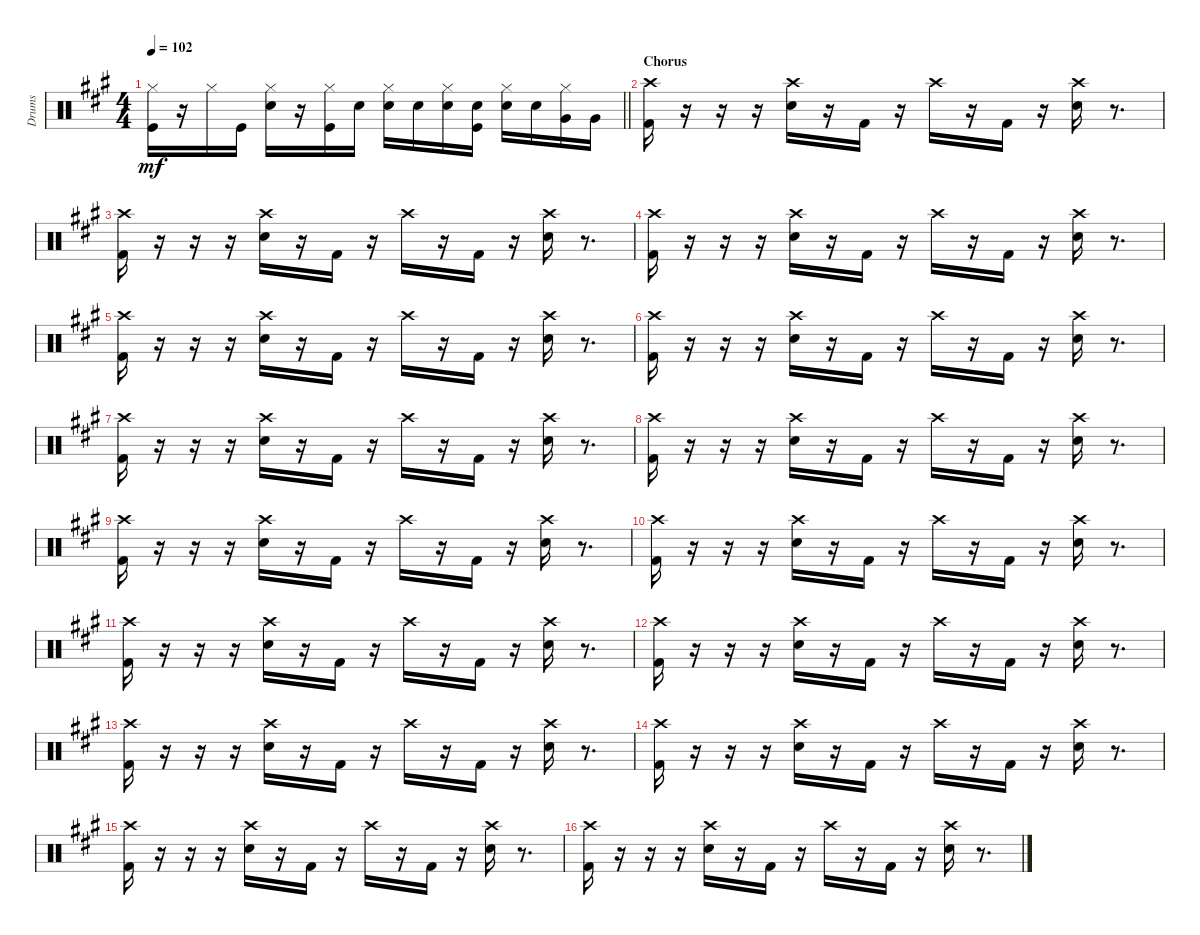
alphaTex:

\track ("Drums" "Drums") {instrument percussion}
\staff {score}
\articulation defaults
\ts (4 4)
\tempo 102
\clef neutral
\barLineRight lightlight
\ks f#minor
("Hi-Hat (closed)" "Kick (hit)").16{dy mf} r.16 "Hi-Hat (closed)".16 "Kick (hit)".16 ("Hi-Hat (closed)" "Snare (hit) 2").16 r.16 ("Hi-Hat (closed)" "Kick (hit)").16 "Snare (hit) 2".16 ("Hi-Hat (closed)" "Snare (hit) 2").16 "Snare (hit) 2".16 ("Hi-Hat (closed)" "Snare (hit) 2").16 ("Snare (hit) 2" "Kick (hit)").16 ("Hi-Hat (closed)" "Snare (hit) 2").16 "Snare (hit) 2".16 ("Hi-Hat (closed)" "Very Low Tom (hit)").16 "Very Low Tom (hit)".16 |
\section ("" "Chorus")
("Crash high (hit)" "Kick (hit) 2").16 r.16 r.16 r.16 ("Crash high (hit)" "Electric Snare (hit)").16 r.16 "Kick (hit) 2".16 r.16 "Crash high (hit)".16 r.16 "Kick (hit) 2".16 r.16 ("Crash high (hit)" "Electric Snare (hit)").16 r.8{d} |
("Crash high (hit)" "Kick (hit) 2").16 r.16 r.16 r.16 ("Crash high (hit)" "Electric Snare (hit)").16 r.16 "Kick (hit) 2".16 r.16 "Crash high (hit)".16 r.16 "Kick (hit) 2".16 r.16 ("Crash high (hit)" "Electric Snare (hit)").16 r.8{d} |
("Crash high (hit)" "Kick (hit) 2").16 r.16 r.16 r.16 ("Crash high (hit)" "Electric Snare (hit)").16 r.16 "Kick (hit) 2".16 r.16 "Crash high (hit)".16 r.16 "Kick (hit) 2".16 r.16 ("Crash high (hit)" "Electric Snare (hit)").16 r.8{d} |
("Crash high (hit)" "Kick (hit) 2").16 r.16 r.16 r.16 ("Crash high (hit)" "Electric Snare (hit)").16 r.16 "Kick (hit) 2".16 r.16 "Crash high (hit)".16 r.16 "Kick (hit) 2".16 r.16 ("Crash high (hit)" "Electric Snare (hit)").16 r.8{d} |
("Crash high (hit)" "Kick (hit) 2").16 r.16 r.16 r.16 ("Crash high (hit)" "Electric Snare (hit)").16 r.16 "Kick (hit) 2".16 r.16 "Crash high (hit)".16 r.16 "Kick (hit) 2".16 r.16 ("Crash high (hit)" "Electric Snare (hit)").16 r.8{d} |
("Crash high (hit)" "Kick (hit) 2").16 r.16 r.16 r.16 ("Crash high (hit)" "Electric Snare (hit)").16 r.16 "Kick (hit) 2".16 r.16 "Crash high (hit)".16 r.16 "Kick (hit) 2".16 r.16 ("Crash high (hit)" "Electric Snare (hit)").16 r.8{d} |
("Crash high (hit)" "Kick (hit) 2").16 r.16 r.16 r.16 ("Crash high (hit)" "Electric Snare (hit)").16 r.16 "Kick (hit) 2".16 r.16 "Crash high (hit)".16 r.16 "Kick (hit) 2".16 r.16 ("Crash high (hit)" "Electric Snare (hit)").16 r.8{d} |
("Crash high (hit)" "Kick (hit) 2").16 r.16 r.16 r.16 ("Crash high (hit)" "Electric Snare (hit)").16 r.16 "Kick (hit) 2".16 r.16 "Crash high (hit)".16 r.16 "Kick (hit) 2".16 r.16 ("Crash high (hit)" "Electric Snare (hit)").16 r.8{d} |
("Crash high (hit)" "Kick (hit) 2").16 r.16 r.16 r.16 ("Crash high (hit)" "Electric Snare (hit)").16 r.16 "Kick (hit) 2".16 r.16 "Crash high (hit)".16 r.16 "Kick (hit) 2".16 r.16 ("Crash high (hit)" "Electric Snare (hit)").16 r.8{d} |
("Crash high (hit)" "Kick (hit) 2").16 r.16 r.16 r.16 ("Crash high (hit)" "Electric Snare (hit)").16 r.16 "Kick (hit) 2".16 r.16 "Crash high (hit)".16 r.16 "Kick (hit) 2".16 r.16 ("Crash high (hit)" "Electric Snare (hit)").16 r.8{d} |
("Crash high (hit)" "Kick (hit) 2").16 r.16 r.16 r.16 ("Crash high (hit)" "Electric Snare (hit)").16 r.16 "Kick (hit) 2".16 r.16 "Crash high (hit)".16 r.16 "Kick (hit) 2".16 r.16 ("Crash high (hit)" "Electric Snare (hit)").16 r.8{d} |
("Crash high (hit)" "Kick (hit) 2").16 r.16 r.16 r.16 ("Crash high (hit)" "Electric Snare (hit)").16 r.16 "Kick (hit) 2".16 r.16 "Crash high (hit)".16 r.16 "Kick (hit) 2".16 r.16 ("Crash high (hit)" "Electric Snare (hit)").16 r.8{d} |
("Crash high (hit)" "Kick (hit) 2").16 r.16 r.16 r.16 ("Crash high (hit)" "Electric Snare (hit)").16 r.16 "Kick (hit) 2".16 r.16 "Crash high (hit)".16 r.16 "Kick (hit) 2".16 r.16 ("Crash high (hit)" "Electric Snare (hit)").16 r.8{d} |
("Crash high (hit)" "Kick (hit) 2").16 r.16 r.16 r.16 ("Crash high (hit)" "Electric Snare (hit)").16 r.16 "Kick (hit) 2".16 r.16 "Crash high (hit)".16 r.16 "Kick (hit) 2".16 r.16 ("Crash high (hit)" "Electric Snare (hit)").16 r.8{d} |
("Crash high (hit)" "Kick (hit) 2").16 r.16 r.16 r.16 ("Crash high (hit)" "Electric Snare (hit)").16 r.16 "Kick (hit) 2".16 r.16 "Crash high (hit)".16 r.16 "Kick (hit) 2".16 r.16 ("Crash high (hit)" "Electric Snare (hit)").16 r.8{d}
